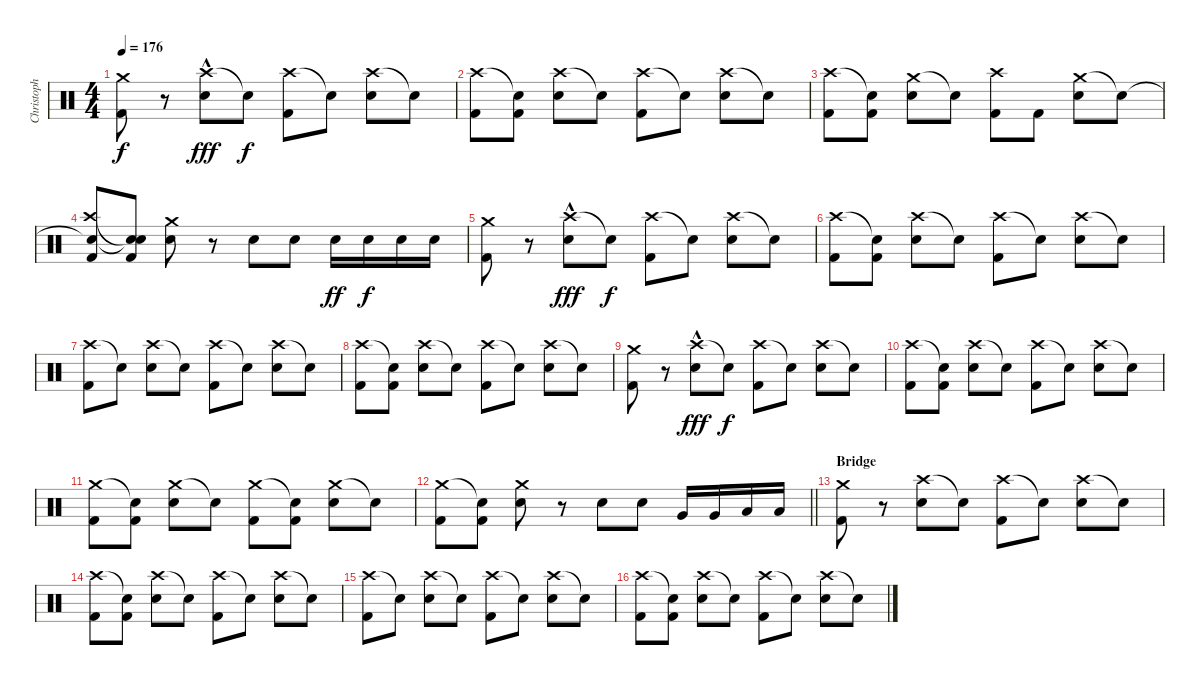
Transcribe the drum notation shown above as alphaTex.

\track ("Christoph" "Christoph") {instrument percussion}
\staff {score}
\articulation defaults
\ts (4 4)
\tempo 176
\clef neutral
\ks c
("Crash medium (hit)" "Kick (hit) 2").8{dy f} r.8 ("Crash high (hit)"{hac} "Snare (hit) 2").8{dy fff} "Snare (hit)"{t}.8{dy f} ("Crash high (hit)" "Kick (hit) 2").8 "Snare (hit)"{t}.8 ("Crash high (hit)" "Snare (hit) 2").8 "Snare (hit)"{t}.8 |
("Crash high (hit)" "Kick (hit) 2").8 ("Snare (hit)"{t} "Kick (hit) 2").8 ("Crash high (hit)" "Snare (hit) 2").8 "Snare (hit)"{t}.8 ("Crash high (hit)" "Kick (hit) 2").8 "Snare (hit)"{t}.8 ("Crash high (hit)" "Snare (hit) 2").8 "Snare (hit)"{t}.8 |
("Crash high (hit)" "Kick (hit) 2").8 ("Snare (hit)"{t} "Kick (hit) 2").8 ("Crash medium (hit)" "Snare (hit) 2").8 "Snare (hit)"{t}.8 ("Crash high (hit)" "Kick (hit) 2").8 "Kick (hit) 2".8 ("Crash medium (hit)" "Snare (hit) 2").8 "Snare (hit)"{t}.8 |
("Snare (hit)"{t} "Crash high (hit)" "Kick (hit) 2").8 ("Snare (hit)"{t} "Snare (hit)"{t} "Kick (hit) 2").8 ("Crash medium (hit)" "Snare (hit) 2").8 r.8 "Snare (hit) 2".8 "Snare (hit) 2".8 "Snare (hit) 2".16{dy ff} "Snare (hit) 2".16{dy f} "Snare (hit) 2".16 "Snare (hit) 2".16 |
("Crash medium (hit)" "Kick (hit) 2").8 r.8 ("Crash high (hit)"{hac} "Snare (hit) 2").8{dy fff} "Snare (hit)"{t}.8{dy f} ("Crash high (hit)" "Kick (hit) 2").8 "Snare (hit)"{t}.8 ("Crash high (hit)" "Snare (hit) 2").8 "Snare (hit)"{t}.8 |
("Crash high (hit)" "Kick (hit) 2").8 ("Snare (hit)"{t} "Kick (hit) 2").8 ("Crash high (hit)" "Snare (hit) 2").8 "Snare (hit)"{t}.8 ("Crash high (hit)" "Kick (hit) 2").8 "Snare (hit)"{t}.8 ("Crash high (hit)" "Snare (hit) 2").8 "Snare (hit)"{t}.8 |
("Crash high (hit)" "Kick (hit) 2").8 "Snare (hit)"{t}.8 ("Crash high (hit)" "Snare (hit) 2").8 "Snare (hit)"{t}.8 ("Crash high (hit)" "Kick (hit) 2").8 "Snare (hit)"{t}.8 ("Crash high (hit)" "Snare (hit) 2").8 "Snare (hit)"{t}.8 |
("Crash high (hit)" "Kick (hit) 2").8 ("Snare (hit)"{t} "Kick (hit) 2").8 ("Crash high (hit)" "Snare (hit) 2").8 "Snare (hit)"{t}.8 ("Crash high (hit)" "Kick (hit) 2").8 "Snare (hit)"{t}.8 ("Crash high (hit)" "Snare (hit) 2").8 "Snare (hit)"{t}.8 |
("Crash medium (hit)" "Kick (hit) 2").8 r.8 ("Crash high (hit)"{hac} "Snare (hit) 2").8{dy fff} "Snare (hit)"{t}.8{dy f} ("Crash high (hit)" "Kick (hit) 2").8 "Snare (hit)"{t}.8 ("Crash high (hit)" "Snare (hit) 2").8 "Snare (hit)"{t}.8 |
("Crash high (hit)" "Kick (hit) 2").8 ("Snare (hit)"{t} "Kick (hit) 2").8 ("Crash high (hit)" "Snare (hit) 2").8 "Snare (hit)"{t}.8 ("Crash high (hit)" "Kick (hit) 2").8 "Snare (hit)"{t}.8 ("Crash high (hit)" "Snare (hit) 2").8 "Snare (hit)"{t}.8 |
("Crash medium (hit)" "Kick (hit) 2").8 ("Snare (hit)"{t} "Kick (hit) 2").8 ("Crash medium (hit)" "Snare (hit) 2").8 "Snare (hit)"{t}.8 ("Crash medium (hit)" "Kick (hit) 2").8 ("Snare (hit)"{t} "Kick (hit) 2").8 ("Crash medium (hit)" "Snare (hit) 2").8 "Snare (hit)"{t}.8 |
\barLineRight lightlight
("Crash medium (hit)" "Kick (hit) 2").8 ("Snare (hit)"{t} "Kick (hit) 2").8 ("Crash medium (hit)" "Snare (hit) 2").8 r.8 "Snare (hit) 2".8 "Snare (hit) 2".8 "Very Low Tom (hit)".16 "Very Low Tom (hit)".16 "Low Floor Tom (hit)".16 "Low Floor Tom (hit)".16 |
\section ("" "Bridge ")
("Crash medium (hit)" "Kick (hit) 2").8 r.8 ("Crash high (hit)" "Snare (hit) 2").8 "Snare (hit)"{t}.8 ("Crash high (hit)" "Kick (hit) 2").8 "Snare (hit)"{t}.8 ("Crash high (hit)" "Snare (hit) 2").8 "Snare (hit)"{t}.8 |
("Crash high (hit)" "Kick (hit) 2").8 ("Snare (hit)"{t} "Kick (hit) 2").8 ("Crash high (hit)" "Snare (hit) 2").8 "Snare (hit)"{t}.8 ("Crash high (hit)" "Kick (hit) 2").8 "Snare (hit)"{t}.8 ("Crash high (hit)" "Snare (hit) 2").8 "Snare (hit)"{t}.8 |
("Crash high (hit)" "Kick (hit) 2").8 "Snare (hit)"{t}.8 ("Crash high (hit)" "Snare (hit) 2").8 "Snare (hit)"{t}.8 ("Crash high (hit)" "Kick (hit) 2").8 "Snare (hit)"{t}.8 ("Crash high (hit)" "Snare (hit) 2").8 "Snare (hit)"{t}.8 |
("Crash high (hit)" "Kick (hit) 2").8 ("Snare (hit)"{t} "Kick (hit) 2").8 ("Crash high (hit)" "Snare (hit) 2").8 "Snare (hit)"{t}.8 ("Crash high (hit)" "Kick (hit) 2").8 "Snare (hit)"{t}.8 ("Crash high (hit)" "Snare (hit) 2").8 "Snare (hit)"{t}.8
